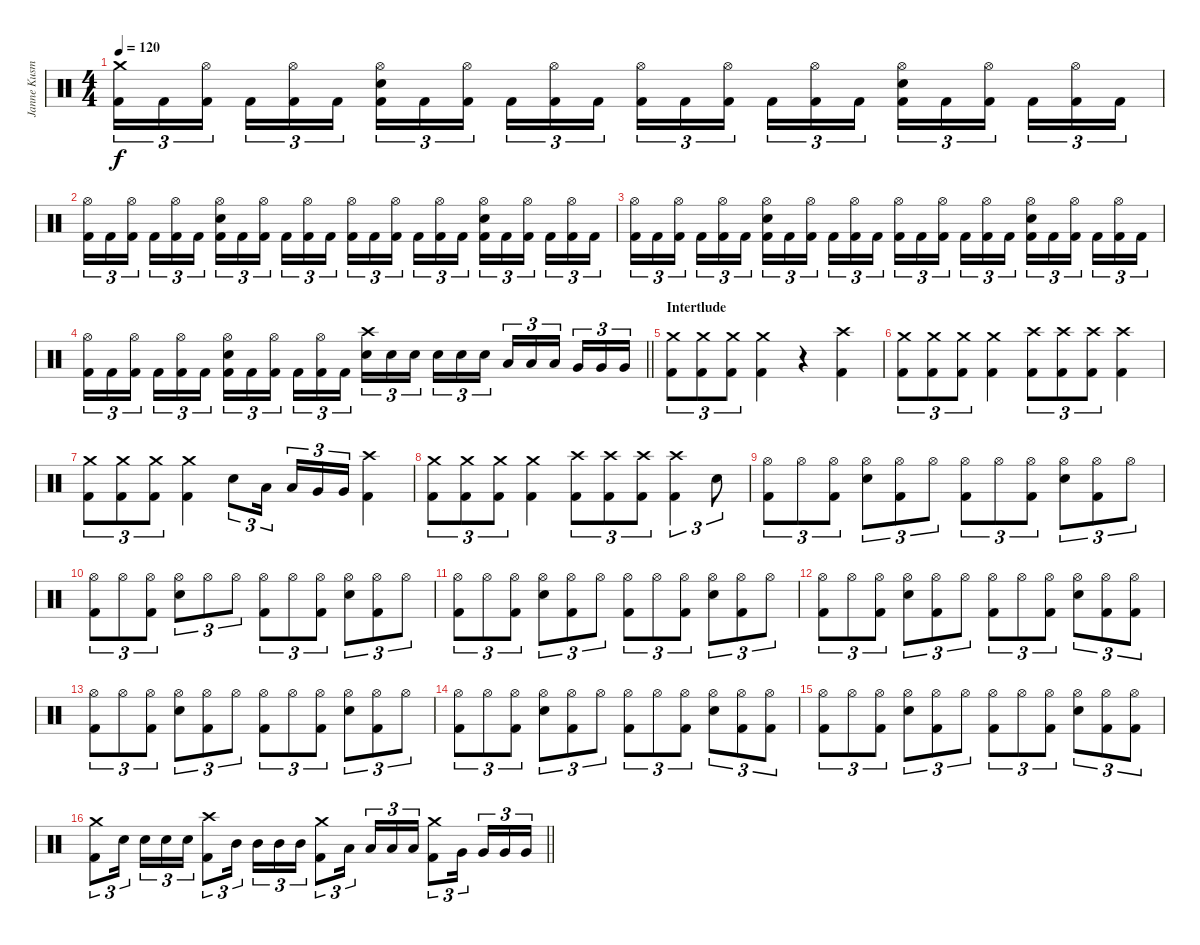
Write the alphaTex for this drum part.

\track ("Janne Kusmin" "Janne Kusm") {instrument percussion}
\staff {score}
\articulation defaults
\ts (4 4)
\tempo 120
\clef neutral
\ks c
("Crash medium (hit)" "Kick (hit) 2").16{tu (3 2) dy f} "Kick (hit) 2".16{tu (3 2)} ("Hi-Hat (open)" "Kick (hit) 2").16{tu (3 2) beam splitsecondary} "Kick (hit) 2".16{tu (3 2)} ("Hi-Hat (open)" "Kick (hit) 2").16{tu (3 2)} "Kick (hit) 2".16{tu (3 2)} ("Hi-Hat (open)" "Snare (hit) 2" "Kick (hit) 2").16{tu (3 2)} "Kick (hit) 2".16{tu (3 2)} ("Hi-Hat (open)" "Kick (hit) 2").16{tu (3 2) beam splitsecondary} "Kick (hit) 2".16{tu (3 2)} ("Hi-Hat (open)" "Kick (hit) 2").16{tu (3 2)} "Kick (hit) 2".16{tu (3 2)} ("Hi-Hat (open)" "Kick (hit) 2").16{tu (3 2)} "Kick (hit) 2".16{tu (3 2)} ("Hi-Hat (open)" "Kick (hit) 2").16{tu (3 2) beam splitsecondary} "Kick (hit) 2".16{tu (3 2)} ("Hi-Hat (open)" "Kick (hit) 2").16{tu (3 2)} "Kick (hit) 2".16{tu (3 2)} ("Hi-Hat (open)" "Snare (hit) 2" "Kick (hit) 2").16{tu (3 2)} "Kick (hit) 2".16{tu (3 2)} ("Hi-Hat (open)" "Kick (hit) 2").16{tu (3 2) beam splitsecondary} "Kick (hit) 2".16{tu (3 2)} ("Hi-Hat (open)" "Kick (hit) 2").16{tu (3 2)} "Kick (hit) 2".16{tu (3 2)} |
("Hi-Hat (open)" "Kick (hit) 2").16{tu (3 2)} "Kick (hit) 2".16{tu (3 2)} ("Hi-Hat (open)" "Kick (hit) 2").16{tu (3 2) beam splitsecondary} "Kick (hit) 2".16{tu (3 2)} ("Hi-Hat (open)" "Kick (hit) 2").16{tu (3 2)} "Kick (hit) 2".16{tu (3 2)} ("Hi-Hat (open)" "Snare (hit) 2" "Kick (hit) 2").16{tu (3 2)} "Kick (hit) 2".16{tu (3 2)} ("Hi-Hat (open)" "Kick (hit) 2").16{tu (3 2) beam splitsecondary} "Kick (hit) 2".16{tu (3 2)} ("Hi-Hat (open)" "Kick (hit) 2").16{tu (3 2)} "Kick (hit) 2".16{tu (3 2)} ("Hi-Hat (open)" "Kick (hit) 2").16{tu (3 2)} "Kick (hit) 2".16{tu (3 2)} ("Hi-Hat (open)" "Kick (hit) 2").16{tu (3 2) beam splitsecondary} "Kick (hit) 2".16{tu (3 2)} ("Hi-Hat (open)" "Kick (hit) 2").16{tu (3 2)} "Kick (hit) 2".16{tu (3 2)} ("Hi-Hat (open)" "Snare (hit) 2" "Kick (hit) 2").16{tu (3 2)} "Kick (hit) 2".16{tu (3 2)} ("Hi-Hat (open)" "Kick (hit) 2").16{tu (3 2) beam splitsecondary} "Kick (hit) 2".16{tu (3 2)} ("Hi-Hat (open)" "Kick (hit) 2").16{tu (3 2)} "Kick (hit) 2".16{tu (3 2)} |
("Hi-Hat (open)" "Kick (hit) 2").16{tu (3 2)} "Kick (hit) 2".16{tu (3 2)} ("Hi-Hat (open)" "Kick (hit) 2").16{tu (3 2) beam splitsecondary} "Kick (hit) 2".16{tu (3 2)} ("Hi-Hat (open)" "Kick (hit) 2").16{tu (3 2)} "Kick (hit) 2".16{tu (3 2)} ("Hi-Hat (open)" "Snare (hit) 2" "Kick (hit) 2").16{tu (3 2)} "Kick (hit) 2".16{tu (3 2)} ("Hi-Hat (open)" "Kick (hit) 2").16{tu (3 2) beam splitsecondary} "Kick (hit) 2".16{tu (3 2)} ("Hi-Hat (open)" "Kick (hit) 2").16{tu (3 2)} "Kick (hit) 2".16{tu (3 2)} ("Hi-Hat (open)" "Kick (hit) 2").16{tu (3 2)} "Kick (hit) 2".16{tu (3 2)} ("Hi-Hat (open)" "Kick (hit) 2").16{tu (3 2) beam splitsecondary} "Kick (hit) 2".16{tu (3 2)} ("Hi-Hat (open)" "Kick (hit) 2").16{tu (3 2)} "Kick (hit) 2".16{tu (3 2)} ("Hi-Hat (open)" "Snare (hit) 2" "Kick (hit) 2").16{tu (3 2)} "Kick (hit) 2".16{tu (3 2)} ("Hi-Hat (open)" "Kick (hit) 2").16{tu (3 2) beam splitsecondary} "Kick (hit) 2".16{tu (3 2)} ("Hi-Hat (open)" "Kick (hit) 2").16{tu (3 2)} "Kick (hit) 2".16{tu (3 2)} |
\barLineRight lightlight
("Hi-Hat (open)" "Kick (hit) 2").16{tu (3 2)} "Kick (hit) 2".16{tu (3 2)} ("Hi-Hat (open)" "Kick (hit) 2").16{tu (3 2) beam splitsecondary} "Kick (hit) 2".16{tu (3 2)} ("Hi-Hat (open)" "Kick (hit) 2").16{tu (3 2)} "Kick (hit) 2".16{tu (3 2)} ("Hi-Hat (open)" "Snare (hit) 2" "Kick (hit) 2").16{tu (3 2)} "Kick (hit) 2".16{tu (3 2)} ("Hi-Hat (open)" "Kick (hit) 2").16{tu (3 2) beam splitsecondary} "Kick (hit) 2".16{tu (3 2)} ("Hi-Hat (open)" "Kick (hit) 2").16{tu (3 2)} "Kick (hit) 2".16{tu (3 2)} ("Crash high (hit)" "Snare (hit) 2").16{tu (3 2)} "Snare (hit) 2".16{tu (3 2)} "Snare (hit) 2".16{tu (3 2) beam splitsecondary} "Snare (hit) 2".16{tu (3 2)} "Snare (hit) 2".16{tu (3 2)} "Snare (hit) 2".16{tu (3 2)} "Low Tom (hit)".16{tu (3 2)} "Low Tom (hit)".16{tu (3 2)} "Low Tom (hit)".16{tu (3 2) beam splitsecondary} "Very Low Tom (hit)".16{tu (3 2)} "Very Low Tom (hit)".16{tu (3 2)} "Very Low Tom (hit)".16{tu (3 2)} |
\section ("" "Intertlude")
("Crash medium (hit)" "Kick (hit) 2").8{tu (3 2)} ("Crash medium (hit)" "Kick (hit) 2").8{tu (3 2)} ("Crash medium (hit)" "Kick (hit) 2").8{tu (3 2)} ("Crash medium (hit)" "Kick (hit) 2").4 r.4 ("Crash high (hit)" "Kick (hit) 2").4 |
("Crash medium (hit)" "Kick (hit) 2").8{tu (3 2)} ("Crash medium (hit)" "Kick (hit) 2").8{tu (3 2)} ("Crash medium (hit)" "Kick (hit) 2").8{tu (3 2)} ("Crash medium (hit)" "Kick (hit) 2").4 ("Crash high (hit)" "Kick (hit) 2").8{tu (3 2)} ("Crash high (hit)" "Kick (hit) 2").8{tu (3 2)} ("Crash high (hit)" "Kick (hit) 2").8{tu (3 2)} ("Crash high (hit)" "Kick (hit) 2").4 |
("Crash medium (hit)" "Kick (hit) 2").8{tu (3 2)} ("Crash medium (hit)" "Kick (hit) 2").8{tu (3 2)} ("Crash medium (hit)" "Kick (hit) 2").8{tu (3 2)} ("Crash medium (hit)" "Kick (hit) 2").4 "Snare (hit) 2".8{tu (3 2)} "Low Tom (hit)".16{tu (3 2) beam splitsecondary} "Low Tom (hit)".16{tu (3 2)} "Very Low Tom (hit)".16{tu (3 2)} "Very Low Tom (hit)".16{tu (3 2)} ("Crash high (hit)" "Kick (hit) 2").4 |
("Crash medium (hit)" "Kick (hit) 2").8{tu (3 2)} ("Crash medium (hit)" "Kick (hit) 2").8{tu (3 2)} ("Crash medium (hit)" "Kick (hit) 2").8{tu (3 2)} ("Crash medium (hit)" "Kick (hit) 2").4 ("Crash high (hit)" "Kick (hit) 2").8{tu (3 2)} ("Crash high (hit)" "Kick (hit) 2").8{tu (3 2)} ("Crash high (hit)" "Kick (hit) 2").8{tu (3 2)} ("Crash high (hit)" "Kick (hit) 2").4{tu (3 2)} "Snare (hit) 2".8{tu (3 2)} |
("Hi-Hat (open)" "Kick (hit) 2").8{tu (3 2)} "Hi-Hat (open)".8{tu (3 2)} ("Hi-Hat (open)" "Kick (hit) 2").8{tu (3 2)} ("Hi-Hat (open)" "Snare (hit) 2").8{tu (3 2)} ("Hi-Hat (open)" "Kick (hit) 2").8{tu (3 2)} "Hi-Hat (open)".8{tu (3 2)} ("Hi-Hat (open)" "Kick (hit) 2").8{tu (3 2)} "Hi-Hat (open)".8{tu (3 2)} ("Hi-Hat (open)" "Kick (hit) 2").8{tu (3 2)} ("Hi-Hat (open)" "Snare (hit) 2").8{tu (3 2)} ("Hi-Hat (open)" "Kick (hit) 2").8{tu (3 2)} "Hi-Hat (open)".8{tu (3 2)} |
("Hi-Hat (open)" "Kick (hit) 2").8{tu (3 2)} "Hi-Hat (open)".8{tu (3 2)} ("Hi-Hat (open)" "Kick (hit) 2").8{tu (3 2)} ("Hi-Hat (open)" "Snare (hit) 2").8{tu (3 2)} "Hi-Hat (open)".8{tu (3 2)} "Hi-Hat (open)".8{tu (3 2)} ("Hi-Hat (open)" "Kick (hit) 2").8{tu (3 2)} "Hi-Hat (open)".8{tu (3 2)} ("Hi-Hat (open)" "Kick (hit) 2").8{tu (3 2)} ("Hi-Hat (open)" "Snare (hit) 2").8{tu (3 2)} ("Hi-Hat (open)" "Kick (hit) 2").8{tu (3 2)} "Hi-Hat (open)".8{tu (3 2)} |
("Hi-Hat (open)" "Kick (hit) 2").8{tu (3 2)} "Hi-Hat (open)".8{tu (3 2)} ("Hi-Hat (open)" "Kick (hit) 2").8{tu (3 2)} ("Hi-Hat (open)" "Snare (hit) 2").8{tu (3 2)} ("Hi-Hat (open)" "Kick (hit) 2").8{tu (3 2)} "Hi-Hat (open)".8{tu (3 2)} ("Hi-Hat (open)" "Kick (hit) 2").8{tu (3 2)} "Hi-Hat (open)".8{tu (3 2)} ("Hi-Hat (open)" "Kick (hit) 2").8{tu (3 2)} ("Hi-Hat (open)" "Snare (hit) 2").8{tu (3 2)} ("Hi-Hat (open)" "Kick (hit) 2").8{tu (3 2)} "Hi-Hat (open)".8{tu (3 2)} |
("Hi-Hat (open)" "Kick (hit) 2").8{tu (3 2)} "Hi-Hat (open)".8{tu (3 2)} ("Hi-Hat (open)" "Kick (hit) 2").8{tu (3 2)} ("Hi-Hat (open)" "Snare (hit) 2").8{tu (3 2)} ("Hi-Hat (open)" "Kick (hit) 2").8{tu (3 2)} "Hi-Hat (open)".8{tu (3 2)} ("Hi-Hat (open)" "Kick (hit) 2").8{tu (3 2)} "Hi-Hat (open)".8{tu (3 2)} ("Hi-Hat (open)" "Kick (hit) 2").8{tu (3 2)} ("Hi-Hat (open)" "Snare (hit) 2").8{tu (3 2)} ("Hi-Hat (open)" "Kick (hit) 2").8{tu (3 2)} ("Hi-Hat (open)" "Kick (hit) 2").8{tu (3 2)} |
("Hi-Hat (open)" "Kick (hit) 2").8{tu (3 2)} "Hi-Hat (open)".8{tu (3 2)} ("Hi-Hat (open)" "Kick (hit) 2").8{tu (3 2)} ("Hi-Hat (open)" "Snare (hit) 2").8{tu (3 2)} ("Hi-Hat (open)" "Kick (hit) 2").8{tu (3 2)} "Hi-Hat (open)".8{tu (3 2)} ("Hi-Hat (open)" "Kick (hit) 2").8{tu (3 2)} "Hi-Hat (open)".8{tu (3 2)} ("Hi-Hat (open)" "Kick (hit) 2").8{tu (3 2)} ("Hi-Hat (open)" "Snare (hit) 2").8{tu (3 2)} ("Hi-Hat (open)" "Kick (hit) 2").8{tu (3 2)} "Hi-Hat (open)".8{tu (3 2)} |
("Hi-Hat (open)" "Kick (hit) 2").8{tu (3 2)} "Hi-Hat (open)".8{tu (3 2)} ("Hi-Hat (open)" "Kick (hit) 2").8{tu (3 2)} ("Hi-Hat (open)" "Snare (hit) 2").8{tu (3 2)} ("Hi-Hat (open)" "Kick (hit) 2").8{tu (3 2)} "Hi-Hat (open)".8{tu (3 2)} ("Hi-Hat (open)" "Kick (hit) 2").8{tu (3 2)} "Hi-Hat (open)".8{tu (3 2)} ("Hi-Hat (open)" "Kick (hit) 2").8{tu (3 2)} ("Hi-Hat (open)" "Snare (hit) 2").8{tu (3 2)} ("Hi-Hat (open)" "Kick (hit) 2").8{tu (3 2)} ("Hi-Hat (open)" "Kick (hit) 2").8{tu (3 2)} |
("Hi-Hat (open)" "Kick (hit) 2").8{tu (3 2)} "Hi-Hat (open)".8{tu (3 2)} ("Hi-Hat (open)" "Kick (hit) 2").8{tu (3 2)} ("Hi-Hat (open)" "Snare (hit) 2").8{tu (3 2)} ("Hi-Hat (open)" "Kick (hit) 2").8{tu (3 2)} "Hi-Hat (open)".8{tu (3 2)} ("Hi-Hat (open)" "Kick (hit) 2").8{tu (3 2)} "Hi-Hat (open)".8{tu (3 2)} ("Hi-Hat (open)" "Kick (hit) 2").8{tu (3 2)} ("Hi-Hat (open)" "Snare (hit) 2").8{tu (3 2)} ("Hi-Hat (open)" "Kick (hit) 2").8{tu (3 2)} ("Hi-Hat (open)" "Kick (hit) 2").8{tu (3 2)} |
\barLineRight lightlight
("Crash medium (hit)" "Kick (hit) 2").8{tu (3 2)} "Snare (hit) 2".16{tu (3 2) beam splitsecondary} "Snare (hit) 2".16{tu (3 2)} "Snare (hit) 2".16{tu (3 2)} "Snare (hit) 2".16{tu (3 2)} ("Crash high (hit)" "Kick (hit) 2").8{tu (3 2)} "Mid Tom (hit)".16{tu (3 2) beam splitsecondary} "Mid Tom (hit)".16{tu (3 2)} "Mid Tom (hit)".16{tu (3 2)} "Mid Tom (hit)".16{tu (3 2)} ("Crash medium (hit)" "Kick (hit) 2").8{tu (3 2)} "Low Tom (hit)".16{tu (3 2) beam splitsecondary} "Low Tom (hit)".16{tu (3 2)} "Low Tom (hit)".16{tu (3 2)} "Low Tom (hit)".16{tu (3 2)} ("Crash medium (hit)" "Kick (hit) 2").8{tu (3 2)} "Very Low Tom (hit)".16{tu (3 2) beam splitsecondary} "Very Low Tom (hit)".16{tu (3 2)} "Very Low Tom (hit)".16{tu (3 2)} "Very Low Tom (hit)".16{tu (3 2)}
